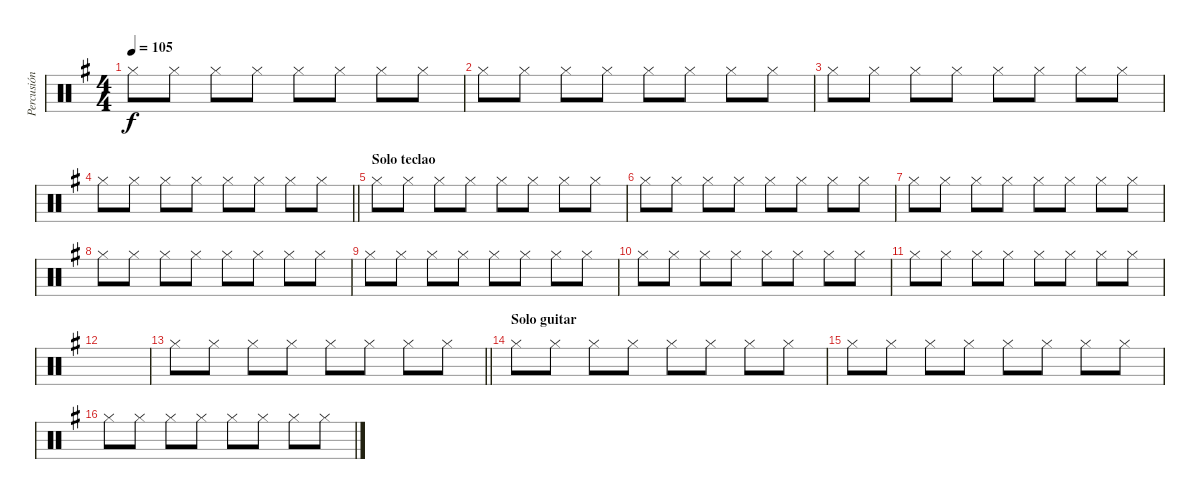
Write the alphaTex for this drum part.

\track ("Percusión" "Percusión") {instrument percussion}
\staff {score}
\articulation defaults
\ts (4 4)
\tempo 105
\clef neutral
\ks g "Hi-Hat (closed)".8{dy f} "Hi-Hat (closed)".8 "Hi-Hat (closed)".8 "Hi-Hat (closed)".8 "Hi-Hat (closed)".8 "Hi-Hat (closed)".8 "Hi-Hat (closed)".8 "Hi-Hat (closed)".8
|
"Hi-Hat (closed)".8 "Hi-Hat (closed)".8 "Hi-Hat (closed)".8 "Hi-Hat (closed)".8 "Hi-Hat (closed)".8 "Hi-Hat (closed)".8 "Hi-Hat (closed)".8 "Hi-Hat (closed)".8 |
"Hi-Hat (closed)".8 "Hi-Hat (closed)".8 "Hi-Hat (closed)".8 "Hi-Hat (closed)".8 "Hi-Hat (closed)".8 "Hi-Hat (closed)".8 "Hi-Hat (closed)".8 "Hi-Hat (closed)".8 |
\barLineRight lightlight "Hi-Hat (closed)".8 "Hi-Hat (closed)".8 "Hi-Hat (closed)".8 "Hi-Hat (closed)".8 "Hi-Hat (closed)".8 "Hi-Hat (closed)".8 "Hi-Hat (closed)".8 "Hi-Hat (closed)".8
|
\section ("" "Solo teclao")
"Hi-Hat (closed)".8 "Hi-Hat (closed)".8 "Hi-Hat (closed)".8 "Hi-Hat (closed)".8 "Hi-Hat (closed)".8 "Hi-Hat (closed)".8 "Hi-Hat (closed)".8 "Hi-Hat (closed)".8 |
"Hi-Hat (closed)".8 "Hi-Hat (closed)".8 "Hi-Hat (closed)".8 "Hi-Hat (closed)".8 "Hi-Hat (closed)".8 "Hi-Hat (closed)".8 "Hi-Hat (closed)".8 "Hi-Hat (closed)".8 |
"Hi-Hat (closed)".8 "Hi-Hat (closed)".8 "Hi-Hat (closed)".8 "Hi-Hat (closed)".8 "Hi-Hat (closed)".8 "Hi-Hat (closed)".8 "Hi-Hat (closed)".8 "Hi-Hat (closed)".8 |
"Hi-Hat (closed)".8 "Hi-Hat (closed)".8 "Hi-Hat (closed)".8 "Hi-Hat (closed)".8 "Hi-Hat (closed)".8 "Hi-Hat (closed)".8 "Hi-Hat (closed)".8 "Hi-Hat (closed)".8 |
"Hi-Hat (closed)".8 "Hi-Hat (closed)".8 "Hi-Hat (closed)".8 "Hi-Hat (closed)".8 "Hi-Hat (closed)".8 "Hi-Hat (closed)".8 "Hi-Hat (closed)".8 "Hi-Hat (closed)".8 |
"Hi-Hat (closed)".8 "Hi-Hat (closed)".8 "Hi-Hat (closed)".8 "Hi-Hat (closed)".8 "Hi-Hat (closed)".8 "Hi-Hat (closed)".8 "Hi-Hat (closed)".8 "Hi-Hat (closed)".8 |
"Hi-Hat (closed)".8 "Hi-Hat (closed)".8 "Hi-Hat (closed)".8 "Hi-Hat (closed)".8 "Hi-Hat (closed)".8 "Hi-Hat (closed)".8 "Hi-Hat (closed)".8 "Hi-Hat (closed)".8 |
|
\barLineRight lightlight "Hi-Hat (closed)".8 "Hi-Hat (closed)".8 "Hi-Hat (closed)".8 "Hi-Hat (closed)".8 "Hi-Hat (closed)".8 "Hi-Hat (closed)".8 "Hi-Hat (closed)".8 "Hi-Hat (closed)".8
|
\section ("" "Solo guitar")
"Hi-Hat (closed)".8 "Hi-Hat (closed)".8 "Hi-Hat (closed)".8 "Hi-Hat (closed)".8 "Hi-Hat (closed)".8 "Hi-Hat (closed)".8 "Hi-Hat (closed)".8 "Hi-Hat (closed)".8 |
"Hi-Hat (closed)".8 "Hi-Hat (closed)".8 "Hi-Hat (closed)".8 "Hi-Hat (closed)".8 "Hi-Hat (closed)".8 "Hi-Hat (closed)".8 "Hi-Hat (closed)".8 "Hi-Hat (closed)".8 |
"Hi-Hat (closed)".8 "Hi-Hat (closed)".8 "Hi-Hat (closed)".8 "Hi-Hat (closed)".8 "Hi-Hat (closed)".8 "Hi-Hat (closed)".8 "Hi-Hat (closed)".8 "Hi-Hat (closed)".8
